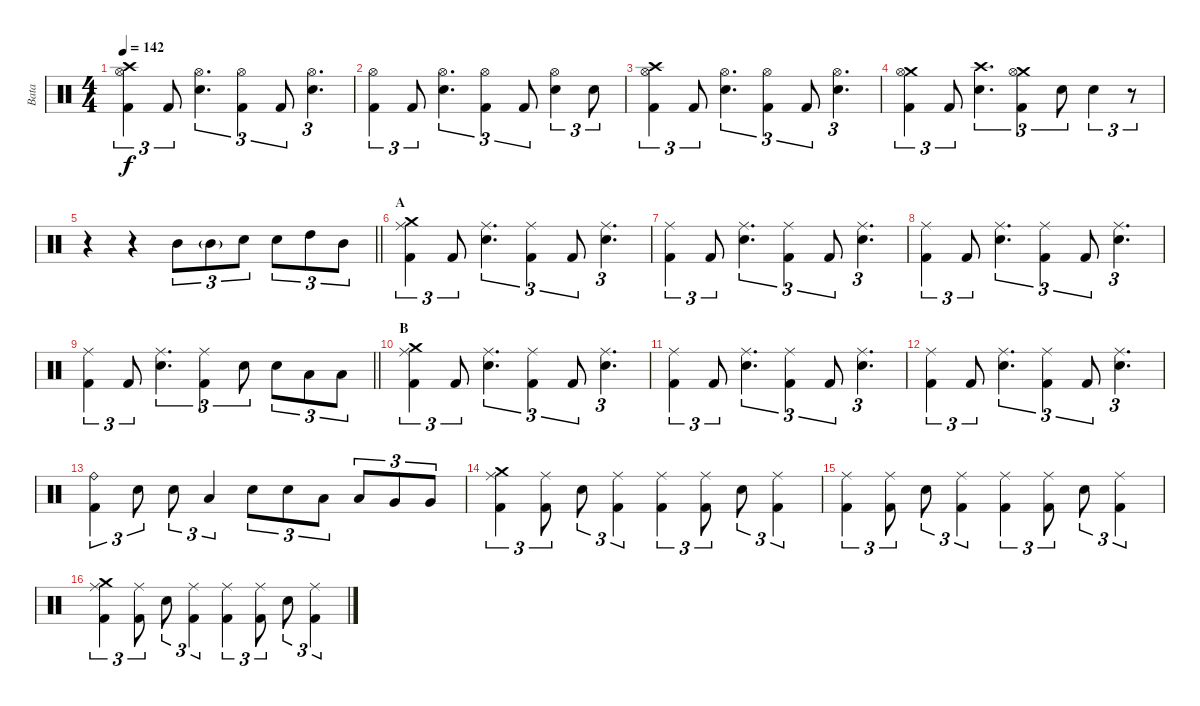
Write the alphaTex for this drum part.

\track ("Bata" "Bata") {instrument percussion}
\staff {score}
\articulation defaults
\ts (4 4)
\tempo 142
\clef neutral
\ks c
("Crash high (hit)" "Hi-Hat (open)" "Kick (hit) 2").4{tu (3 2) dy f} "Kick (hit) 2".8{tu (3 2)} ("Hi-Hat (open)" "Electric Snare (hit)").4{d tu (3 2)} ("Hi-Hat (open)" "Kick (hit) 2").4{tu (3 2)} "Kick (hit) 2".8{tu (3 2)} ("Hi-Hat (open)" "Electric Snare (hit)").4{d tu (3 2)} |
("Hi-Hat (open)" "Kick (hit) 2").4{tu (3 2)} "Kick (hit) 2".8{tu (3 2)} ("Hi-Hat (open)" "Electric Snare (hit)").4{d tu (3 2)} ("Hi-Hat (open)" "Kick (hit) 2").4{tu (3 2)} "Kick (hit) 2".8{tu (3 2)} ("Hi-Hat (open)" "Electric Snare (hit)").4{tu (3 2)} "Electric Snare (hit)".8{tu (3 2)} |
("Crash high (hit)" "Hi-Hat (open)" "Kick (hit) 2").4{tu (3 2)} "Kick (hit) 2".8{tu (3 2)} ("Hi-Hat (open)" "Electric Snare (hit)").4{d tu (3 2)} ("Hi-Hat (open)" "Kick (hit) 2").4{tu (3 2)} "Kick (hit) 2".8{tu (3 2)} ("Hi-Hat (open)" "Electric Snare (hit)").4{d tu (3 2)} |
("Crash medium (hit)" "Hi-Hat (open)" "Kick (hit) 2").4{tu (3 2)} "Kick (hit) 2".8{tu (3 2)} ("Crash high (hit)" "Electric Snare (hit)").4{d tu (3 2)} ("Crash medium (hit)" "Hi-Hat (open)" "Kick (hit) 2").4{tu (3 2)} "Electric Snare (hit)".8{tu (3 2)} "Electric Snare (hit)".4{tu (3 2)} r.8{tu (3 2)} |
\barLineRight lightlight
r.4 r.4 "Mid Tom (hit)".8{tu (3 2)} "Mid Tom (hit)"{g}.8{tu (3 2)} "Snare (hit) 2".8{tu (3 2)} "Snare (hit) 2".8{tu (3 2)} "High Tom (hit)".8{tu (3 2)} "Mid Tom (hit)".8{tu (3 2)} |
\section ("" "A")
("Crash medium (hit)" "Ride (middle)" "Kick (hit) 2").4{tu (3 2)} "Kick (hit) 2".8{tu (3 2)} ("Ride (middle)" "Electric Snare (hit)").4{d tu (3 2)} ("Ride (middle)" "Kick (hit) 2").4{tu (3 2)} "Kick (hit) 2".8{tu (3 2)} ("Ride (middle)" "Electric Snare (hit)").4{d tu (3 2)} |
("Ride (middle)" "Kick (hit) 2").4{tu (3 2)} "Kick (hit) 2".8{tu (3 2)} ("Ride (middle)" "Electric Snare (hit)").4{d tu (3 2)} ("Ride (middle)" "Kick (hit) 2").4{tu (3 2)} "Kick (hit) 2".8{tu (3 2)} ("Ride (middle)" "Electric Snare (hit)").4{d tu (3 2)} |
("Ride (middle)" "Kick (hit) 2").4{tu (3 2)} "Kick (hit) 2".8{tu (3 2)} ("Ride (middle)" "Electric Snare (hit)").4{d tu (3 2)} ("Ride (middle)" "Kick (hit) 2").4{tu (3 2)} "Kick (hit) 2".8{tu (3 2)} ("Ride (middle)" "Electric Snare (hit)").4{d tu (3 2)} |
\barLineRight lightlight
("Ride (middle)" "Kick (hit) 2").4{tu (3 2)} "Kick (hit) 2".8{tu (3 2)} ("Ride (middle)" "Electric Snare (hit)").4{d tu (3 2)} ("Ride (middle)" "Kick (hit) 2").4{tu (3 2)} "Electric Snare (hit)".8{tu (3 2)} "Electric Snare (hit)".8{tu (3 2)} "Low Tom (hit)".8{tu (3 2)} "Low Tom (hit)".8{tu (3 2)} |
\section ("" "B")
("Crash medium (hit)" "Ride (middle)" "Kick (hit) 2").4{tu (3 2)} "Kick (hit) 2".8{tu (3 2)} ("Ride (middle)" "Electric Snare (hit)").4{d tu (3 2)} ("Ride (middle)" "Kick (hit) 2").4{tu (3 2)} "Kick (hit) 2".8{tu (3 2)} ("Ride (middle)" "Electric Snare (hit)").4{d tu (3 2)} |
("Ride (middle)" "Kick (hit) 2").4{tu (3 2)} "Kick (hit) 2".8{tu (3 2)} ("Ride (middle)" "Electric Snare (hit)").4{d tu (3 2)} ("Ride (middle)" "Kick (hit) 2").4{tu (3 2)} "Kick (hit) 2".8{tu (3 2)} ("Ride (middle)" "Electric Snare (hit)").4{d tu (3 2)} |
("Ride (middle)" "Kick (hit) 2").4{tu (3 2)} "Kick (hit) 2".8{tu (3 2)} ("Ride (middle)" "Electric Snare (hit)").4{d tu (3 2)} ("Ride (middle)" "Kick (hit) 2").4{tu (3 2)} "Kick (hit) 2".8{tu (3 2)} ("Ride (middle)" "Electric Snare (hit)").4{d tu (3 2)} |
("Ride (bell)" "Kick (hit) 2").4{tu (3 2)} "Electric Snare (hit)".8{tu (3 2)} "Electric Snare (hit)".8{tu (3 2)} "Low Floor Tom (hit)".4{tu (3 2)} "Electric Snare (hit)".8{tu (3 2)} "Electric Snare (hit)".8{tu (3 2)} "Low Tom (hit)".8{tu (3 2)} "Low Tom (hit)".8{tu (3 2)} "Very Low Tom (hit)".8{tu (3 2)} "Very Low Tom (hit)".8{tu (3 2)} |
("Crash medium (hit)" "Ride (middle)" "Kick (hit) 2").4{tu (3 2)} ("Ride (middle)" "Kick (hit) 2").8{tu (3 2)} "Electric Snare (hit)".8{tu (3 2)} ("Ride (middle)" "Kick (hit) 2").4{tu (3 2)} ("Ride (middle)" "Kick (hit) 2").4{tu (3 2)} ("Ride (middle)" "Kick (hit) 2").8{tu (3 2)} "Electric Snare (hit)".8{tu (3 2)} ("Ride (middle)" "Kick (hit) 2").4{tu (3 2)} |
("Ride (middle)" "Kick (hit) 2").4{tu (3 2)} ("Ride (middle)" "Kick (hit) 2").8{tu (3 2)} "Electric Snare (hit)".8{tu (3 2)} ("Ride (middle)" "Kick (hit) 2").4{tu (3 2)} ("Ride (middle)" "Kick (hit) 2").4{tu (3 2)} ("Ride (middle)" "Kick (hit) 2").8{tu (3 2)} "Electric Snare (hit)".8{tu (3 2)} ("Ride (middle)" "Kick (hit) 2").4{tu (3 2)} |
("Crash medium (hit)" "Ride (middle)" "Kick (hit) 2").4{tu (3 2)} ("Ride (middle)" "Kick (hit) 2").8{tu (3 2)} "Electric Snare (hit)".8{tu (3 2)} ("Ride (middle)" "Kick (hit) 2").4{tu (3 2)} ("Ride (middle)" "Kick (hit) 2").4{tu (3 2)} ("Ride (middle)" "Kick (hit) 2").8{tu (3 2)} "Electric Snare (hit)".8{tu (3 2)} ("Ride (middle)" "Kick (hit) 2").4{tu (3 2)}
